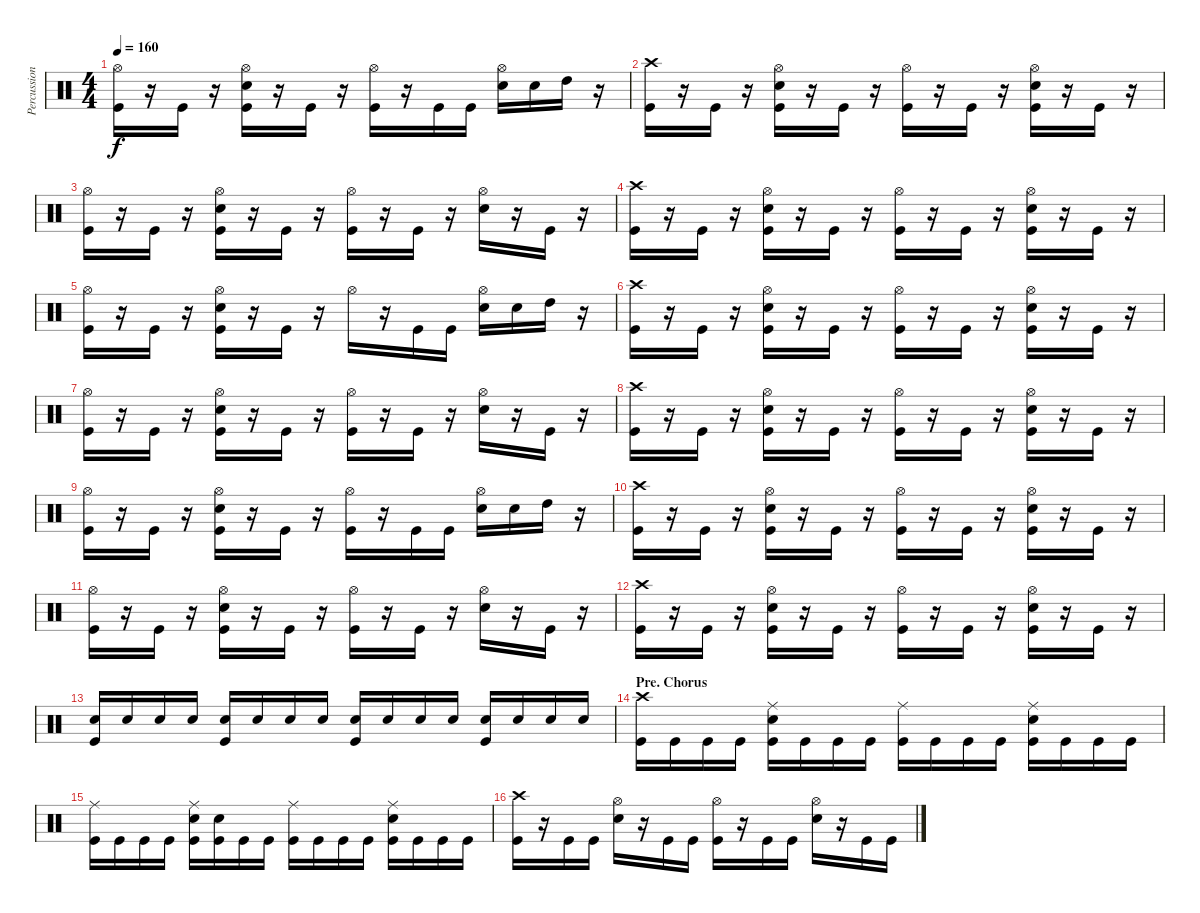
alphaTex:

\track ("Percussion" "Percussion") {instrument percussion}
\staff {score}
\articulation defaults
\ts (4 4)
\tempo 160
\clef neutral
\ks c
("Hi-Hat (open)" "Kick (hit)").16{dy f} r.16 "Kick (hit)".16 r.16 ("Hi-Hat (open)" "Electric Snare (hit)" "Kick (hit)").16 r.16 "Kick (hit)".16 r.16 ("Hi-Hat (open)" "Kick (hit)").16 r.16 "Kick (hit)".16 "Kick (hit)".16 ("Hi-Hat (open)" "Electric Snare (hit)").16 "Electric Snare (hit)".16 "High Tom (hit)".16 r.16 |
("Crash high (hit)" "Kick (hit)").16 r.16 "Kick (hit)".16 r.16 ("Hi-Hat (open)" "Electric Snare (hit)" "Kick (hit)").16 r.16 "Kick (hit)".16 r.16 ("Hi-Hat (open)" "Kick (hit)").16 r.16 "Kick (hit)".16 r.16 ("Hi-Hat (open)" "Electric Snare (hit)" "Kick (hit)").16 r.16 "Kick (hit)".16 r.16 |
("Hi-Hat (open)" "Kick (hit)").16 r.16 "Kick (hit)".16 r.16 ("Hi-Hat (open)" "Electric Snare (hit)" "Kick (hit)").16 r.16 "Kick (hit)".16 r.16 ("Hi-Hat (open)" "Kick (hit)").16 r.16 "Kick (hit)".16 r.16 ("Hi-Hat (open)" "Electric Snare (hit)").16 r.16 "Kick (hit)".16 r.16 |
("Crash high (hit)" "Kick (hit)").16 r.16 "Kick (hit)".16 r.16 ("Hi-Hat (open)" "Electric Snare (hit)" "Kick (hit)").16 r.16 "Kick (hit)".16 r.16 ("Hi-Hat (open)" "Kick (hit)").16 r.16 "Kick (hit)".16 r.16 ("Hi-Hat (open)" "Electric Snare (hit)" "Kick (hit)").16 r.16 "Kick (hit)".16 r.16 |
("Hi-Hat (open)" "Kick (hit)").16 r.16 "Kick (hit)".16 r.16 ("Hi-Hat (open)" "Electric Snare (hit)" "Kick (hit)").16 r.16 "Kick (hit)".16 r.16 "Hi-Hat (open)".16 r.16 "Kick (hit)".16 "Kick (hit)".16 ("Hi-Hat (open)" "Electric Snare (hit)").16 "Electric Snare (hit)".16 "High Tom (hit)".16 r.16 |
("Crash high (hit)" "Kick (hit)").16 r.16 "Kick (hit)".16 r.16 ("Hi-Hat (open)" "Electric Snare (hit)" "Kick (hit)").16 r.16 "Kick (hit)".16 r.16 ("Hi-Hat (open)" "Kick (hit)").16 r.16 "Kick (hit)".16 r.16 ("Hi-Hat (open)" "Electric Snare (hit)" "Kick (hit)").16 r.16 "Kick (hit)".16 r.16 |
("Hi-Hat (open)" "Kick (hit)").16 r.16 "Kick (hit)".16 r.16 ("Hi-Hat (open)" "Electric Snare (hit)" "Kick (hit)").16 r.16 "Kick (hit)".16 r.16 ("Hi-Hat (open)" "Kick (hit)").16 r.16 "Kick (hit)".16 r.16 ("Hi-Hat (open)" "Electric Snare (hit)").16 r.16 "Kick (hit)".16 r.16 |
("Crash high (hit)" "Kick (hit)").16 r.16 "Kick (hit)".16 r.16 ("Hi-Hat (open)" "Electric Snare (hit)" "Kick (hit)").16 r.16 "Kick (hit)".16 r.16 ("Hi-Hat (open)" "Kick (hit)").16 r.16 "Kick (hit)".16 r.16 ("Hi-Hat (open)" "Electric Snare (hit)" "Kick (hit)").16 r.16 "Kick (hit)".16 r.16 |
("Hi-Hat (open)" "Kick (hit)").16 r.16 "Kick (hit)".16 r.16 ("Hi-Hat (open)" "Electric Snare (hit)" "Kick (hit)").16 r.16 "Kick (hit)".16 r.16 ("Hi-Hat (open)" "Kick (hit)").16 r.16 "Kick (hit)".16 "Kick (hit)".16 ("Hi-Hat (open)" "Electric Snare (hit)").16 "Electric Snare (hit)".16 "High Tom (hit)".16 r.16 |
("Crash high (hit)" "Kick (hit)").16 r.16 "Kick (hit)".16 r.16 ("Hi-Hat (open)" "Electric Snare (hit)" "Kick (hit)").16 r.16 "Kick (hit)".16 r.16 ("Hi-Hat (open)" "Kick (hit)").16 r.16 "Kick (hit)".16 r.16 ("Hi-Hat (open)" "Electric Snare (hit)" "Kick (hit)").16 r.16 "Kick (hit)".16 r.16 |
("Hi-Hat (open)" "Kick (hit)").16 r.16 "Kick (hit)".16 r.16 ("Hi-Hat (open)" "Electric Snare (hit)" "Kick (hit)").16 r.16 "Kick (hit)".16 r.16 ("Hi-Hat (open)" "Kick (hit)").16 r.16 "Kick (hit)".16 r.16 ("Hi-Hat (open)" "Electric Snare (hit)").16 r.16 "Kick (hit)".16 r.16 |
("Crash high (hit)" "Kick (hit)").16 r.16 "Kick (hit)".16 r.16 ("Hi-Hat (open)" "Electric Snare (hit)" "Kick (hit)").16 r.16 "Kick (hit)".16 r.16 ("Hi-Hat (open)" "Kick (hit)").16 r.16 "Kick (hit)".16 r.16 ("Hi-Hat (open)" "Electric Snare (hit)" "Kick (hit)").16 r.16 "Kick (hit)".16 r.16 |
("Electric Snare (hit)" "Kick (hit)").16 "Electric Snare (hit)".16 "Electric Snare (hit)".16 "Electric Snare (hit)".16 ("Electric Snare (hit)" "Kick (hit)").16 "Electric Snare (hit)".16 "Electric Snare (hit)".16 "Electric Snare (hit)".16 ("Electric Snare (hit)" "Kick (hit)").16 "Electric Snare (hit)".16 "Electric Snare (hit)".16 "Electric Snare (hit)".16 ("Electric Snare (hit)" "Kick (hit)").16 "Electric Snare (hit)".16 "Electric Snare (hit)".16 "Electric Snare (hit)".16 |
\section ("" "Pre. Chorus")
("Crash high (hit)" "Kick (hit)").16 "Kick (hit)".16 "Kick (hit)".16 "Kick (hit)".16 ("Ride (middle)" "Electric Snare (hit)" "Kick (hit)").16 "Kick (hit)".16 "Kick (hit)".16 "Kick (hit)".16 ("Ride (middle)" "Kick (hit)").16 "Kick (hit)".16 "Kick (hit)".16 "Kick (hit)".16 ("Ride (middle)" "Electric Snare (hit)" "Kick (hit)").16 "Kick (hit)".16 "Kick (hit)".16 "Kick (hit)".16 |
("Ride (middle)" "Kick (hit)").16 "Kick (hit)".16 "Kick (hit)".16 "Kick (hit)".16 ("Ride (middle)" "Electric Snare (hit)" "Kick (hit)").16 ("Electric Snare (hit)" "Kick (hit)").16 "Kick (hit)".16 "Kick (hit)".16 ("Ride (middle)" "Kick (hit)").16 "Kick (hit)".16 "Kick (hit)".16 "Kick (hit)".16 ("Ride (middle)" "Electric Snare (hit)" "Kick (hit)").16 "Kick (hit)".16 "Kick (hit)".16 "Kick (hit)".16 |
("Crash high (hit)" "Kick (hit)").16 r.16 "Kick (hit)".16 "Kick (hit)".16 ("Hi-Hat (open)" "Electric Snare (hit)").16 r.16 "Kick (hit)".16 "Kick (hit)".16 ("Hi-Hat (open)" "Kick (hit)").16 r.16 "Kick (hit)".16 "Kick (hit)".16 ("Hi-Hat (open)" "Electric Snare (hit)").16 r.16 "Kick (hit)".16 "Kick (hit)".16
